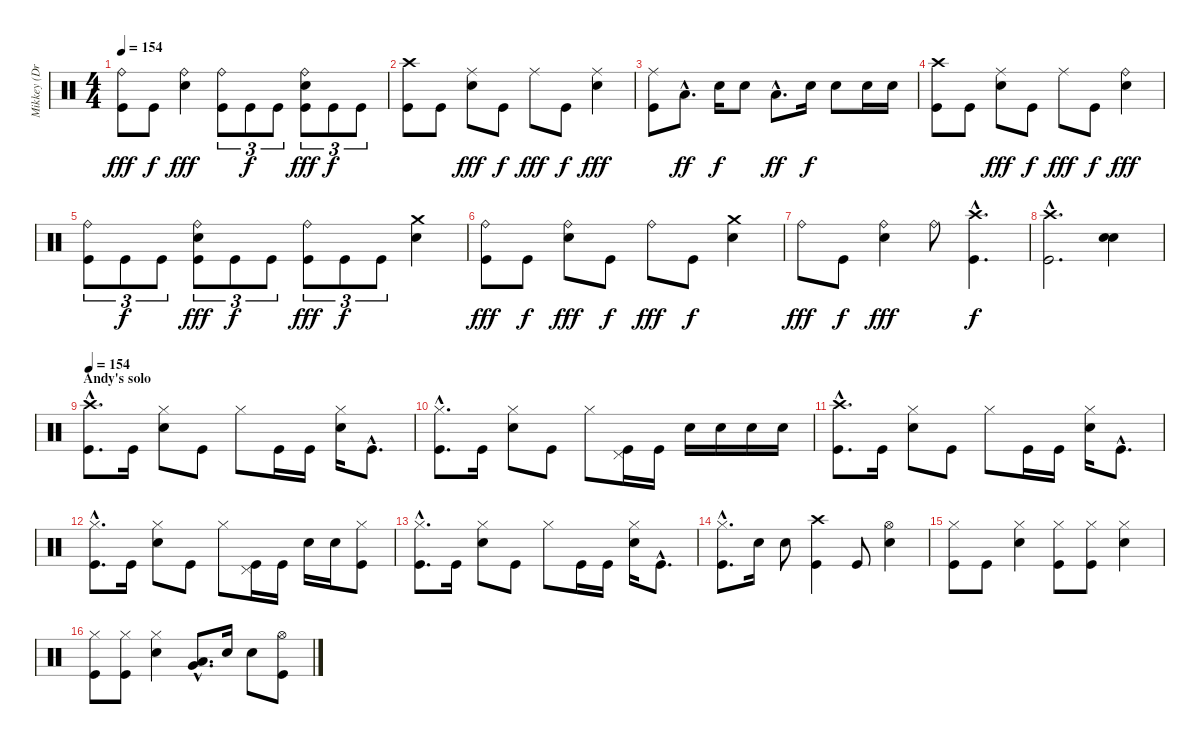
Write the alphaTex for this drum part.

\track ("Mikkey (Drums)" "Mikkey (Dr") {instrument percussion}
\staff {score}
\articulation defaults
\ts (4 4)
\tempo 154
\clef neutral
\ks c
("Ride (bell)" "Kick (hit)").8{dy fff} "Kick (hit)".8{dy f} ("Ride (bell)" "Electric Snare (hit)").4{dy fff} ("Ride (bell)" "Kick (hit)").8{tu (3 2)} "Kick (hit)".8{tu (3 2) dy f} "Kick (hit)".8{tu (3 2)} ("Ride (bell)" "Electric Snare (hit)" "Kick (hit)").8{tu (3 2) dy fff} "Kick (hit)".8{tu (3 2) dy f} "Kick (hit)".8{tu (3 2)} |
("Crash high (hit)" "Kick (hit)").8 "Kick (hit)".8 ("Ride (middle)" "Electric Snare (hit)").8{dy fff} "Kick (hit)".8{dy f} "Ride (middle)".8{dy fff} "Kick (hit)".8{dy f} ("Ride (middle)" "Electric Snare (hit)").4{dy fff} |
("Ride (middle)" "Kick (hit)").8 "Low Tom (hit)"{hac}.8{d dy ff} "Electric Snare (hit)".16{dy f} "Electric Snare (hit)".8 "Low Tom (hit)"{hac}.8{d dy ff} "Electric Snare (hit)".16{dy f} "Electric Snare (hit)".8 "Electric Snare (hit)".16 "Electric Snare (hit)".16 |
("Crash high (hit)" "Kick (hit)").8 "Kick (hit)".8 ("Ride (middle)" "Electric Snare (hit)").8{dy fff} "Kick (hit)".8{dy f} "Ride (middle)".8{dy fff} "Kick (hit)".8{dy f} ("Ride (bell)" "Electric Snare (hit)").4{dy fff} |
("Ride (bell)" "Kick (hit)").8{tu (3 2)} "Kick (hit)".8{tu (3 2) dy f} "Kick (hit)".8{tu (3 2)} ("Ride (bell)" "Electric Snare (hit)" "Kick (hit)").8{tu (3 2) dy fff} "Kick (hit)".8{tu (3 2) dy f} "Kick (hit)".8{tu (3 2)} ("Ride (bell)" "Kick (hit)").8{tu (3 2) dy fff} "Kick (hit)".8{tu (3 2) dy f} "Kick (hit)".8{tu (3 2)} ("Crash medium (hit)" "Electric Snare (hit)").4 |
("Ride (bell)" "Kick (hit)").8{dy fff} "Kick (hit)".8{dy f} ("Ride (bell)" "Electric Snare (hit)").8{dy fff} "Kick (hit)".8{dy f} "Ride (bell)".8{dy fff} "Kick (hit)".8{dy f} ("Crash medium (hit)" "Electric Snare (hit)").4 |
"Ride (bell)".8{dy fff} "Kick (hit)".8{dy f} ("Ride (bell)" "Electric Snare (hit)").4{dy fff} "Ride (bell)".8 ("Crash high (hit)"{hac} "Kick (hit)"{hac}).4{d dy f} |
("Crash high (hit)"{hac} "Kick (hit)"{hac}).2{d} ("Electric Snare (hit)" "Electric Snare (hit)").4{bu 240} |
\section ("" "Andy's solo")
\tempo 154
("Crash high (hit)"{hac} "Kick (hit)"{hac}).8{d} "Kick (hit)".16 ("Hi-Hat (closed)" "Electric Snare (hit)").8 "Kick (hit)".8 "Hi-Hat (closed)".8 "Kick (hit)".16 "Kick (hit)".16 ("Hi-Hat (closed)" "Electric Snare (hit)").16 "Kick (hit)"{hac}.8{d} |
("Hi-Hat (closed)"{hac} "Kick (hit)"{hac}).8{d} "Kick (hit)".16 ("Hi-Hat (closed)" "Electric Snare (hit)").8 "Kick (hit)".8 "Hi-Hat (closed)".8 ("Pedal Hi-Hat (hit)" "Kick (hit)").16 "Kick (hit)".16 "Electric Snare (hit)".16 "Electric Snare (hit)".16 "Electric Snare (hit)".16 "Electric Snare (hit)".16 |
("Crash high (hit)"{hac} "Kick (hit)"{hac}).8{d} "Kick (hit)".16 ("Hi-Hat (closed)" "Electric Snare (hit)").8 "Kick (hit)".8 "Hi-Hat (closed)".8 "Kick (hit)".16 "Kick (hit)".16 ("Hi-Hat (closed)" "Electric Snare (hit)").16 "Kick (hit)"{hac}.8{d} |
("Hi-Hat (closed)"{hac} "Kick (hit)"{hac}).8{d} "Kick (hit)".16 ("Hi-Hat (closed)" "Electric Snare (hit)").8 "Kick (hit)".8 "Hi-Hat (closed)".8 ("Pedal Hi-Hat (hit)" "Kick (hit)").16 "Kick (hit)".16 "Electric Snare (hit)".16 "Electric Snare (hit)".16 ("Hi-Hat (closed)" "Kick (hit)").8 |
("Hi-Hat (closed)"{hac} "Kick (hit)"{hac}).8{d} "Kick (hit)".16 ("Hi-Hat (closed)" "Electric Snare (hit)").8 "Kick (hit)".8 "Hi-Hat (closed)".8 "Kick (hit)".16 "Kick (hit)".16 ("Hi-Hat (closed)" "Electric Snare (hit)").16 "Kick (hit)"{hac}.8{d} |
("Hi-Hat (closed)"{hac} "Kick (hit)"{hac}).8{d} "Electric Snare (hit)".16 "Electric Snare (hit)".8 ("Crash high (hit)" "Kick (hit)").4 "Kick (hit)".8 ("Hi-Hat (open)" "Electric Snare (hit)").4 |
("Hi-Hat (closed)" "Kick (hit)").8 "Kick (hit)".8 ("Hi-Hat (closed)" "Electric Snare (hit)").4 ("Hi-Hat (closed)" "Kick (hit)").8 ("Hi-Hat (closed)" "Kick (hit)").8 ("Hi-Hat (closed)" "Electric Snare (hit)").4 |
("Hi-Hat (closed)" "Kick (hit)").8 ("Hi-Hat (closed)" "Kick (hit)").8 ("Hi-Hat (closed)" "Electric Snare (hit)").4 ("Low Tom (hit)"{hac} "Very Low Tom (hit)"{hac}).8{d bd 120} "Electric Snare (hit)".16 "Electric Snare (hit)".8 ("Hi-Hat (open)" "Kick (hit)").8
